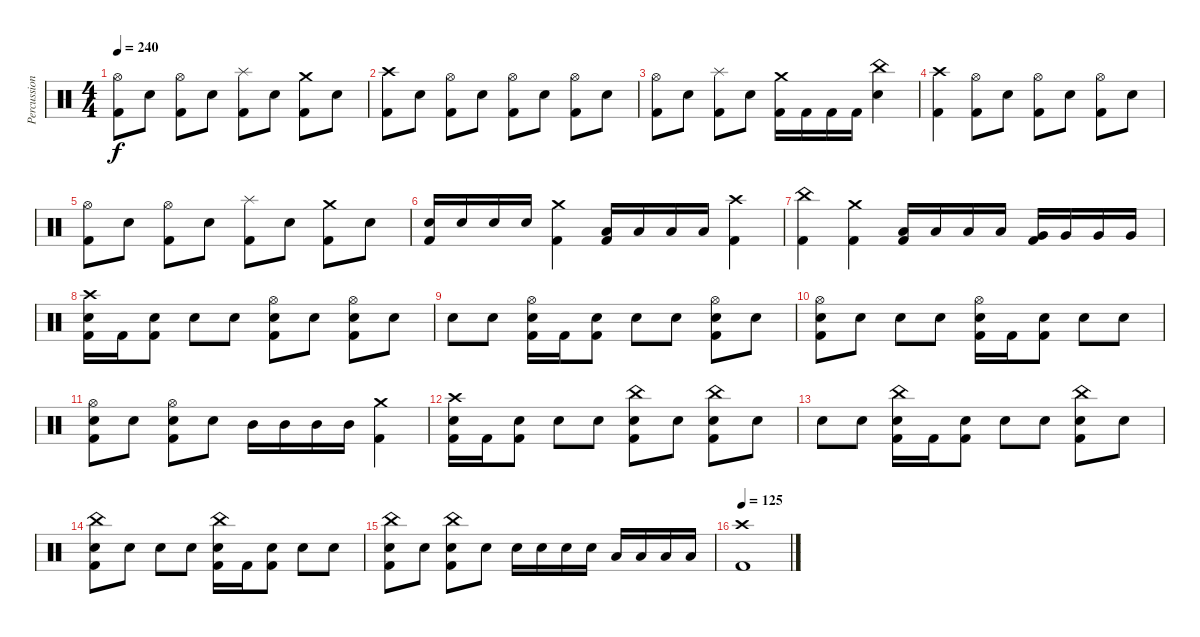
\track ("Percussion" "Percussion") {solo instrument percussion}
\staff {score}
\articulation defaults
\ts (4 4)
\tempo 240
\clef neutral
\ks c
("Hi-Hat (open)" "Kick (hit) 2").8{dy f} "Electric Snare (hit)".8 ("Hi-Hat (open)" "Kick (hit) 2").8 "Electric Snare (hit)".8 ("Splash (hit)" "Kick (hit) 2").8 "Electric Snare (hit)".8 ("Crash medium (hit)" "Kick (hit) 2").8 "Electric Snare (hit)".8 |
("Crash high (hit)" "Kick (hit) 2").8 "Electric Snare (hit)".8 ("Hi-Hat (open)" "Kick (hit) 2").8 "Electric Snare (hit)".8 ("Hi-Hat (open)" "Kick (hit) 2").8 "Electric Snare (hit)".8 ("Hi-Hat (open)" "Kick (hit) 2").8 "Electric Snare (hit)".8 |
("Hi-Hat (open)" "Kick (hit) 2").8 "Electric Snare (hit)".8 ("Splash (hit)" "Kick (hit) 2").8 "Electric Snare (hit)".8 ("Crash medium (hit)" "Kick (hit) 2").16 "Kick (hit) 2".16 "Kick (hit) 2".16 "Kick (hit) 2".16 ("China (hit)" "Electric Snare (hit)").4 |
("Crash high (hit)" "Kick (hit) 2").4 ("Hi-Hat (open)" "Kick (hit) 2").8 "Electric Snare (hit)".8 ("Hi-Hat (open)" "Kick (hit) 2").8 "Electric Snare (hit)".8 ("Hi-Hat (open)" "Kick (hit) 2").8 "Electric Snare (hit)".8 |
("Hi-Hat (open)" "Kick (hit) 2").8 "Electric Snare (hit)".8 ("Hi-Hat (open)" "Kick (hit) 2").8 "Electric Snare (hit)".8 ("Splash (hit)" "Kick (hit) 2").8 "Electric Snare (hit)".8 ("Crash medium (hit)" "Kick (hit) 2").8 "Electric Snare (hit)".8 |
("Electric Snare (hit)" "Kick (hit) 2").16 "Electric Snare (hit)".16 "Electric Snare (hit)".16 "Electric Snare (hit)".16 ("Crash medium (hit)" "Kick (hit) 2").4 ("Low Tom (hit)" "Kick (hit) 2").16 "Low Tom (hit)".16 "Low Tom (hit)".16 "Low Tom (hit)".16 ("Crash high (hit)" "Kick (hit) 2").4 |
("China (hit)" "Kick (hit) 2").4 ("Crash medium (hit)" "Kick (hit) 2").4 ("Low Tom (hit)" "Kick (hit) 2").16 "Low Tom (hit)".16 "Low Tom (hit)".16 "Low Tom (hit)".16 ("Very Low Tom (hit)" "Kick (hit) 2").16 "Very Low Tom (hit)".16 "Very Low Tom (hit)".16 "Very Low Tom (hit)".16 |
("Crash high (hit)" "Electric Snare (hit)" "Kick (hit) 2").16 "Kick (hit) 2".16 ("Electric Snare (hit)" "Kick (hit) 2").8 "Electric Snare (hit)".8 "Electric Snare (hit)".8 ("Hi-Hat (open)" "Electric Snare (hit)" "Kick (hit) 2").8 "Electric Snare (hit)".8 ("Hi-Hat (open)" "Electric Snare (hit)" "Kick (hit) 2").8 "Electric Snare (hit)".8 |
"Electric Snare (hit)".8 "Electric Snare (hit)".8 ("Hi-Hat (open)" "Electric Snare (hit)" "Kick (hit) 2").16 "Kick (hit) 2".16 ("Electric Snare (hit)" "Kick (hit) 2").8 "Electric Snare (hit)".8 "Electric Snare (hit)".8 ("Hi-Hat (open)" "Electric Snare (hit)" "Kick (hit) 2").8 "Electric Snare (hit)".8 |
("Hi-Hat (open)" "Electric Snare (hit)" "Kick (hit) 2").8 "Electric Snare (hit)".8 "Electric Snare (hit)".8 "Electric Snare (hit)".8 ("Hi-Hat (open)" "Electric Snare (hit)" "Kick (hit) 2").16 "Kick (hit) 2".16 ("Electric Snare (hit)" "Kick (hit) 2").8 "Electric Snare (hit)".8 "Electric Snare (hit)".8 |
("Hi-Hat (open)" "Electric Snare (hit)" "Kick (hit) 2").8 "Electric Snare (hit)".8 ("Hi-Hat (open)" "Electric Snare (hit)" "Kick (hit) 2").8 "Electric Snare (hit)".8 "Mid Tom (hit)".16 "Mid Tom (hit)".16 "Mid Tom (hit)".16 "Mid Tom (hit)".16 ("Crash medium (hit)" "Kick (hit) 2").4 |
("Crash high (hit)" "Electric Snare (hit)" "Kick (hit) 2").16 "Kick (hit) 2".16 ("Electric Snare (hit)" "Kick (hit) 2").8 "Electric Snare (hit)".8 "Electric Snare (hit)".8 ("China (hit)" "Electric Snare (hit)" "Kick (hit) 2").8 "Electric Snare (hit)".8 ("China (hit)" "Electric Snare (hit)" "Kick (hit) 2").8 "Electric Snare (hit)".8 |
"Electric Snare (hit)".8 "Electric Snare (hit)".8 ("China (hit)" "Electric Snare (hit)" "Kick (hit) 2").16 "Kick (hit) 2".16 ("Electric Snare (hit)" "Kick (hit) 2").8 "Electric Snare (hit)".8 "Electric Snare (hit)".8 ("China (hit)" "Electric Snare (hit)" "Kick (hit) 2").8 "Electric Snare (hit)".8 |
("China (hit)" "Electric Snare (hit)" "Kick (hit) 2").8 "Electric Snare (hit)".8 "Electric Snare (hit)".8 "Electric Snare (hit)".8 ("China (hit)" "Electric Snare (hit)" "Kick (hit) 2").16 "Kick (hit) 2".16 ("Electric Snare (hit)" "Kick (hit) 2").8 "Electric Snare (hit)".8 "Electric Snare (hit)".8 |
("China (hit)" "Electric Snare (hit)" "Kick (hit) 2").8 "Electric Snare (hit)".8 ("China (hit)" "Electric Snare (hit)" "Kick (hit) 2").8 "Electric Snare (hit)".8 "Electric Snare (hit)".16 "Electric Snare (hit)".16 "Electric Snare (hit)".16 "Electric Snare (hit)".16 "Low Tom (hit)".16 "Low Tom (hit)".16 "Low Tom (hit)".16 "Low Tom (hit)".16 |
\tempo 125
("Crash high (hit)" "Kick (hit) 2").1
